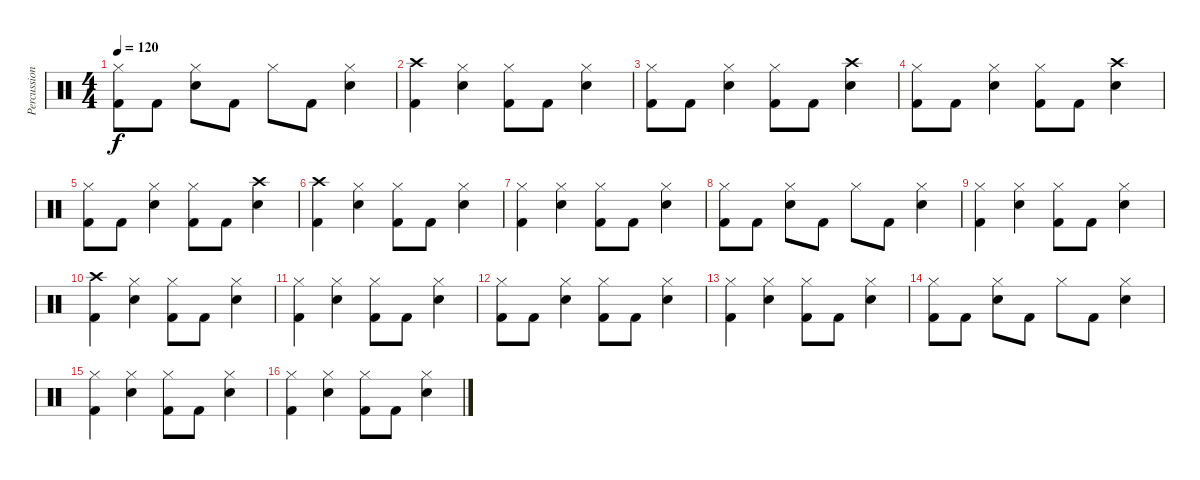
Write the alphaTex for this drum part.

\track ("Percussion" "Percussion") {instrument percussion}
\staff {score}
\articulation defaults
\ts (4 4)
\tempo 120
\clef neutral
\ks c
("Hi-Hat (closed)" "Kick (hit) 2").8{dy f} "Kick (hit) 2".8 ("Hi-Hat (closed)" "Snare (hit) 2").8 "Kick (hit) 2".8 "Hi-Hat (closed)".8 "Kick (hit) 2".8 ("Hi-Hat (closed)" "Snare (hit) 2").4 |
("Crash high (hit)" "Kick (hit) 2").4 ("Hi-Hat (closed)" "Snare (hit) 2").4 ("Hi-Hat (closed)" "Kick (hit) 2").8 "Kick (hit) 2".8 ("Hi-Hat (closed)" "Snare (hit) 2").4 |
("Hi-Hat (closed)" "Kick (hit) 2").8 "Kick (hit) 2".8 ("Hi-Hat (closed)" "Snare (hit) 2").4 ("Hi-Hat (closed)" "Kick (hit) 2").8 "Kick (hit) 2".8 ("Crash high (hit)" "Snare (hit) 2").4 |
("Hi-Hat (closed)" "Kick (hit) 2").8 "Kick (hit) 2".8 ("Hi-Hat (closed)" "Snare (hit) 2").4 ("Hi-Hat (closed)" "Kick (hit) 2").8 "Kick (hit) 2".8 ("Crash high (hit)" "Snare (hit) 2").4 |
("Hi-Hat (closed)" "Kick (hit) 2").8 "Kick (hit) 2".8 ("Hi-Hat (closed)" "Snare (hit) 2").4 ("Hi-Hat (closed)" "Kick (hit) 2").8 "Kick (hit) 2".8 ("Crash high (hit)" "Snare (hit) 2").4 |
("Crash high (hit)" "Kick (hit) 2").4 ("Hi-Hat (closed)" "Snare (hit) 2").4 ("Hi-Hat (closed)" "Kick (hit) 2").8 "Kick (hit) 2".8 ("Hi-Hat (closed)" "Snare (hit) 2").4 |
("Hi-Hat (closed)" "Kick (hit) 2").4 ("Hi-Hat (closed)" "Snare (hit) 2").4 ("Hi-Hat (closed)" "Kick (hit) 2").8 "Kick (hit) 2".8 ("Hi-Hat (closed)" "Snare (hit) 2").4 |
("Hi-Hat (closed)" "Kick (hit) 2").8 "Kick (hit) 2".8 ("Hi-Hat (closed)" "Snare (hit) 2").8 "Kick (hit) 2".8 "Hi-Hat (closed)".8 "Kick (hit) 2".8 ("Hi-Hat (closed)" "Snare (hit) 2").4 |
("Hi-Hat (closed)" "Kick (hit) 2").4 ("Hi-Hat (closed)" "Snare (hit) 2").4 ("Hi-Hat (closed)" "Kick (hit) 2").8 "Kick (hit) 2".8 ("Hi-Hat (closed)" "Snare (hit) 2").4 |
("Crash high (hit)" "Kick (hit) 2").4 ("Hi-Hat (closed)" "Snare (hit) 2").4 ("Hi-Hat (closed)" "Kick (hit) 2").8 "Kick (hit) 2".8 ("Hi-Hat (closed)" "Snare (hit) 2").4 |
("Hi-Hat (closed)" "Kick (hit) 2").4 ("Hi-Hat (closed)" "Snare (hit) 2").4 ("Hi-Hat (closed)" "Kick (hit) 2").8 "Kick (hit) 2".8 ("Hi-Hat (closed)" "Snare (hit) 2").4 |
("Hi-Hat (closed)" "Kick (hit) 2").8 "Kick (hit) 2".8 ("Hi-Hat (closed)" "Snare (hit) 2").4 ("Hi-Hat (closed)" "Kick (hit) 2").8 "Kick (hit) 2".8 ("Hi-Hat (closed)" "Snare (hit) 2").4 |
("Hi-Hat (closed)" "Kick (hit) 2").4 ("Hi-Hat (closed)" "Snare (hit) 2").4 ("Hi-Hat (closed)" "Kick (hit) 2").8 "Kick (hit) 2".8 ("Hi-Hat (closed)" "Snare (hit) 2").4 |
("Hi-Hat (closed)" "Kick (hit) 2").8 "Kick (hit) 2".8 ("Hi-Hat (closed)" "Snare (hit) 2").8 "Kick (hit) 2".8 "Hi-Hat (closed)".8 "Kick (hit) 2".8 ("Hi-Hat (closed)" "Snare (hit) 2").4 |
("Hi-Hat (closed)" "Kick (hit) 2").4 ("Hi-Hat (closed)" "Snare (hit) 2").4 ("Hi-Hat (closed)" "Kick (hit) 2").8 "Kick (hit) 2".8 ("Hi-Hat (closed)" "Snare (hit) 2").4 |
("Hi-Hat (closed)" "Kick (hit) 2").4 ("Hi-Hat (closed)" "Snare (hit) 2").4 ("Hi-Hat (closed)" "Kick (hit) 2").8 "Kick (hit) 2".8 ("Hi-Hat (closed)" "Snare (hit) 2").4
